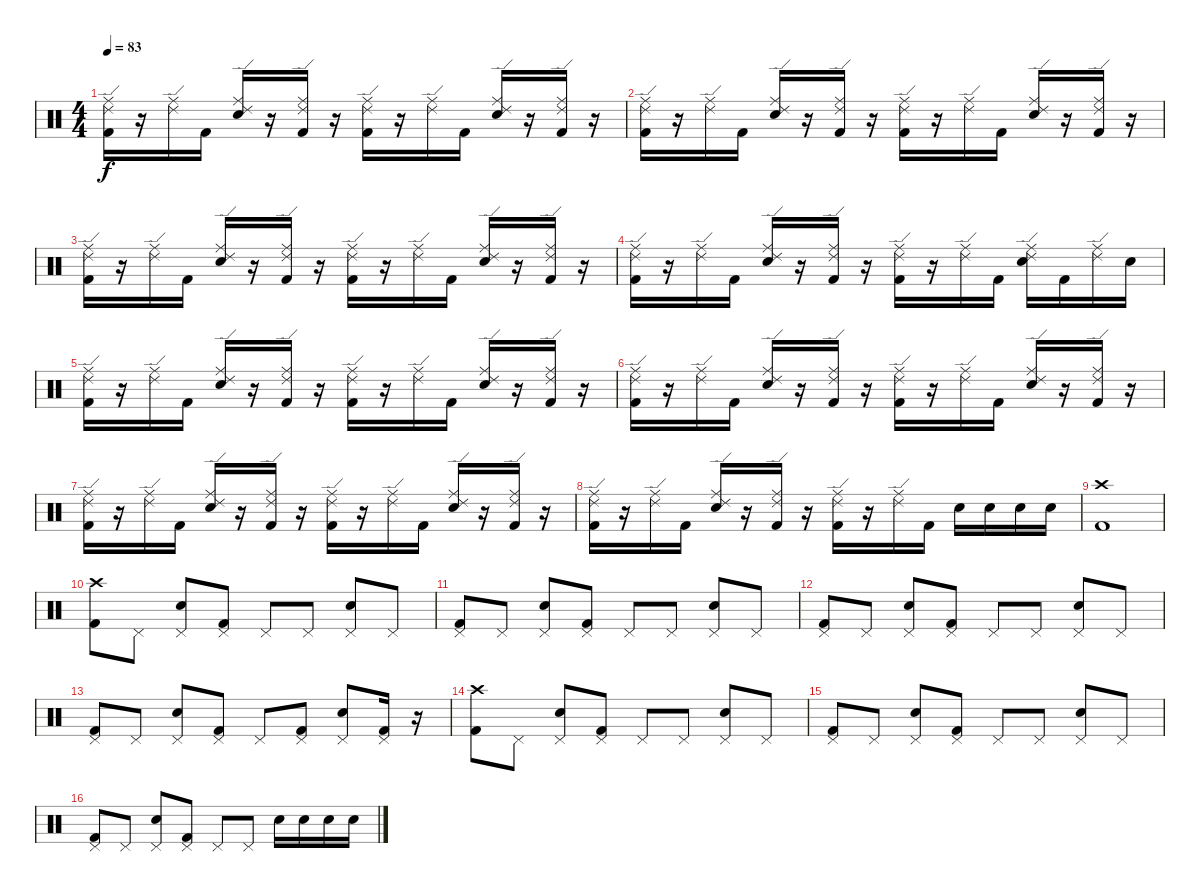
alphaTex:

\track "" {instrument percussion}
\staff {score}
\articulation defaults
\ts (4 4)
\tempo 83
\clef neutral
\ks c
("Ride (edge) 2" "Ride (middle)" "Kick (hit) 2").16{dy f} r.16 ("Ride (edge) 2" "Ride (middle)").16 "Kick (hit) 2".16 ("Ride (edge) 2" "Ride (middle)" "Snare (hit) 2").16 r.16 ("Ride (edge) 2" "Ride (middle)" "Kick (hit) 2").16 r.16 ("Ride (edge) 2" "Ride (middle)" "Kick (hit) 2").16 r.16 ("Ride (edge) 2" "Ride (middle)").16 "Kick (hit) 2".16 ("Ride (edge) 2" "Ride (middle)" "Snare (hit) 2").16 r.16 ("Ride (edge) 2" "Ride (middle)" "Kick (hit) 2").16 r.16 |
("Ride (edge) 2" "Ride (middle)" "Kick (hit) 2").16 r.16 ("Ride (edge) 2" "Ride (middle)").16 "Kick (hit) 2".16 ("Ride (edge) 2" "Ride (middle)" "Snare (hit) 2").16 r.16 ("Ride (edge) 2" "Ride (middle)" "Kick (hit) 2").16 r.16 ("Ride (edge) 2" "Ride (middle)" "Kick (hit) 2").16 r.16 ("Ride (edge) 2" "Ride (middle)").16 "Kick (hit) 2".16 ("Ride (edge) 2" "Ride (middle)" "Snare (hit) 2").16 r.16 ("Ride (edge) 2" "Ride (middle)" "Kick (hit) 2").16 r.16 |
("Ride (edge) 2" "Ride (middle)" "Kick (hit) 2").16 r.16 ("Ride (edge) 2" "Ride (middle)").16 "Kick (hit) 2".16 ("Ride (edge) 2" "Ride (middle)" "Snare (hit) 2").16 r.16 ("Ride (edge) 2" "Ride (middle)" "Kick (hit) 2").16 r.16 ("Ride (edge) 2" "Ride (middle)" "Kick (hit) 2").16 r.16 ("Ride (edge) 2" "Ride (middle)").16 "Kick (hit) 2".16 ("Ride (edge) 2" "Ride (middle)" "Snare (hit) 2").16 r.16 ("Ride (edge) 2" "Ride (middle)" "Kick (hit) 2").16 r.16 |
("Ride (edge) 2" "Ride (middle)" "Kick (hit) 2").16 r.16 ("Ride (edge) 2" "Ride (middle)").16 "Kick (hit) 2".16 ("Ride (edge) 2" "Ride (middle)" "Snare (hit) 2").16 r.16 ("Ride (edge) 2" "Ride (middle)" "Kick (hit) 2").16 r.16 ("Ride (edge) 2" "Ride (middle)" "Kick (hit) 2").16 r.16 ("Ride (edge) 2" "Ride (middle)").16 "Kick (hit) 2".16 ("Ride (edge) 2" "Ride (middle)" "Snare (hit) 2").16 "Kick (hit) 2".16 ("Ride (edge) 2" "Ride (middle)").16 "Snare (hit) 2".16 |
("Ride (edge) 2" "Ride (middle)" "Kick (hit) 2").16 r.16 ("Ride (edge) 2" "Ride (middle)").16 "Kick (hit) 2".16 ("Ride (edge) 2" "Ride (middle)" "Snare (hit) 2").16 r.16 ("Ride (edge) 2" "Ride (middle)" "Kick (hit) 2").16 r.16 ("Ride (edge) 2" "Ride (middle)" "Kick (hit) 2").16 r.16 ("Ride (edge) 2" "Ride (middle)").16 "Kick (hit) 2".16 ("Ride (edge) 2" "Ride (middle)" "Snare (hit) 2").16 r.16 ("Ride (edge) 2" "Ride (middle)" "Kick (hit) 2").16 r.16 |
("Ride (edge) 2" "Ride (middle)" "Kick (hit) 2").16 r.16 ("Ride (edge) 2" "Ride (middle)").16 "Kick (hit) 2".16 ("Ride (edge) 2" "Ride (middle)" "Snare (hit) 2").16 r.16 ("Ride (edge) 2" "Ride (middle)" "Kick (hit) 2").16 r.16 ("Ride (edge) 2" "Ride (middle)" "Kick (hit) 2").16 r.16 ("Ride (edge) 2" "Ride (middle)").16 "Kick (hit) 2".16 ("Ride (edge) 2" "Ride (middle)" "Snare (hit) 2").16 r.16 ("Ride (edge) 2" "Ride (middle)" "Kick (hit) 2").16 r.16 |
("Ride (edge) 2" "Ride (middle)" "Kick (hit) 2").16 r.16 ("Ride (edge) 2" "Ride (middle)").16 "Kick (hit) 2".16 ("Ride (edge) 2" "Ride (middle)" "Snare (hit) 2").16 r.16 ("Ride (edge) 2" "Ride (middle)" "Kick (hit) 2").16 r.16 ("Ride (edge) 2" "Ride (middle)" "Kick (hit) 2").16 r.16 ("Ride (edge) 2" "Ride (middle)").16 "Kick (hit) 2".16 ("Ride (edge) 2" "Ride (middle)" "Snare (hit) 2").16 r.16 ("Ride (edge) 2" "Ride (middle)" "Kick (hit) 2").16 r.16 |
("Ride (edge) 2" "Ride (middle)" "Kick (hit) 2").16 r.16 ("Ride (edge) 2" "Ride (middle)").16 "Kick (hit) 2".16 ("Ride (edge) 2" "Ride (middle)" "Snare (hit) 2").16 r.16 ("Ride (edge) 2" "Ride (middle)" "Kick (hit) 2").16 r.16 ("Ride (edge) 2" "Ride (middle)" "Kick (hit) 2").16 r.16 ("Ride (edge) 2" "Ride (middle)").16 "Kick (hit) 2".16 "Snare (hit) 2".16 "Snare (hit) 2".16 "Snare (hit) 2".16 "Snare (hit) 2".16 |
("Crash high (hit)" "Kick (hit) 2").1 |
("Crash high (hit)" "Kick (hit) 2").8 "Pedal Hi-Hat (hit)".8 ("Pedal Hi-Hat (hit)" "Snare (hit) 2").8 ("Pedal Hi-Hat (hit)" "Kick (hit) 2").8 "Pedal Hi-Hat (hit)".8 "Pedal Hi-Hat (hit)".8 ("Pedal Hi-Hat (hit)" "Snare (hit) 2").8 "Pedal Hi-Hat (hit)".8 |
("Pedal Hi-Hat (hit)" "Kick (hit) 2").8 "Pedal Hi-Hat (hit)".8 ("Pedal Hi-Hat (hit)" "Snare (hit) 2").8 ("Pedal Hi-Hat (hit)" "Kick (hit) 2").8 "Pedal Hi-Hat (hit)".8 "Pedal Hi-Hat (hit)".8 ("Pedal Hi-Hat (hit)" "Snare (hit) 2").8 "Pedal Hi-Hat (hit)".8 |
("Pedal Hi-Hat (hit)" "Kick (hit) 2").8 "Pedal Hi-Hat (hit)".8 ("Pedal Hi-Hat (hit)" "Snare (hit) 2").8 ("Pedal Hi-Hat (hit)" "Kick (hit) 2").8 "Pedal Hi-Hat (hit)".8 "Pedal Hi-Hat (hit)".8 ("Pedal Hi-Hat (hit)" "Snare (hit) 2").8 "Pedal Hi-Hat (hit)".8 |
("Pedal Hi-Hat (hit)" "Kick (hit) 2").8 "Pedal Hi-Hat (hit)".8 ("Pedal Hi-Hat (hit)" "Snare (hit) 2").8 ("Pedal Hi-Hat (hit)" "Kick (hit) 2").8 "Pedal Hi-Hat (hit)".8 ("Pedal Hi-Hat (hit)" "Kick (hit) 2").8 ("Pedal Hi-Hat (hit)" "Snare (hit) 2").8 ("Pedal Hi-Hat (hit)" "Kick (hit) 2").16 r.16 |
("Crash high (hit)" "Kick (hit) 2").8 "Pedal Hi-Hat (hit)".8 ("Pedal Hi-Hat (hit)" "Snare (hit) 2").8 ("Pedal Hi-Hat (hit)" "Kick (hit) 2").8 "Pedal Hi-Hat (hit)".8 "Pedal Hi-Hat (hit)".8 ("Pedal Hi-Hat (hit)" "Snare (hit) 2").8 "Pedal Hi-Hat (hit)".8 |
("Pedal Hi-Hat (hit)" "Kick (hit) 2").8 "Pedal Hi-Hat (hit)".8 ("Pedal Hi-Hat (hit)" "Snare (hit) 2").8 ("Pedal Hi-Hat (hit)" "Kick (hit) 2").8 "Pedal Hi-Hat (hit)".8 "Pedal Hi-Hat (hit)".8 ("Pedal Hi-Hat (hit)" "Snare (hit) 2").8 "Pedal Hi-Hat (hit)".8 |
("Pedal Hi-Hat (hit)" "Kick (hit) 2").8 "Pedal Hi-Hat (hit)".8 ("Pedal Hi-Hat (hit)" "Snare (hit) 2").8 ("Pedal Hi-Hat (hit)" "Kick (hit) 2").8 "Pedal Hi-Hat (hit)".8 "Pedal Hi-Hat (hit)".8 "Snare (hit) 2".16 "Snare (hit) 2".16 "Snare (hit) 2".16 "Snare (hit) 2".16
